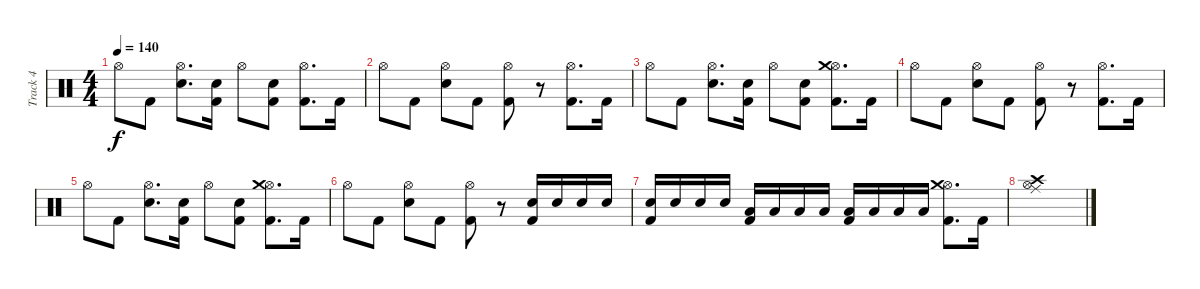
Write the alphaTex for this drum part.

\track ("Track 4" "Track 4") {instrument percussion}
\staff {score}
\articulation defaults
\ts (4 4)
\tempo 140
\clef neutral
\ks c "Hi-Hat (open)".8{dy f} "Kick (hit) 2".8
("Hi-Hat (open)" "Snare (hit) 2").8{d} ("Snare (hit) 2" "Kick (hit) 2").16 "Hi-Hat (open)".8 ("Snare (hit) 2" "Kick (hit) 2").8 ("Hi-Hat (open)" "Kick (hit) 2").8{d} "Kick (hit) 2".16 |
"Hi-Hat (open)".8 "Kick (hit) 2".8 ("Hi-Hat (open)" "Snare (hit) 2").8 "Kick (hit) 2".8 ("Hi-Hat (open)" "Kick (hit) 2").8 r.8 ("Hi-Hat (open)" "Kick (hit) 2").8{d} "Kick (hit) 2".16 |
"Hi-Hat (open)".8 "Kick (hit) 2".8 ("Hi-Hat (open)" "Snare (hit) 2").8{d} ("Snare (hit) 2" "Kick (hit) 2").16 "Hi-Hat (open)".8 ("Snare (hit) 2" "Kick (hit) 2").8 ("Hi-Hat (open)" "Crash medium (hit)" "Kick (hit) 2").8{d} "Kick (hit) 2".16 |
"Hi-Hat (open)".8 "Kick (hit) 2".8 ("Hi-Hat (open)" "Snare (hit) 2").8 "Kick (hit) 2".8 ("Hi-Hat (open)" "Kick (hit) 2").8 r.8 ("Hi-Hat (open)" "Kick (hit) 2").8{d} "Kick (hit) 2".16 |
"Hi-Hat (open)".8 "Kick (hit) 2".8 ("Hi-Hat (open)" "Snare (hit) 2").8{d} ("Snare (hit) 2" "Kick (hit) 2").16 "Hi-Hat (open)".8 ("Snare (hit) 2" "Kick (hit) 2").8 ("Hi-Hat (open)" "Crash medium (hit)" "Kick (hit) 2").8{d} "Kick (hit) 2".16 |
"Hi-Hat (open)".8 "Kick (hit) 2".8 ("Hi-Hat (open)" "Snare (hit) 2").8 "Kick (hit) 2".8 ("Hi-Hat (open)" "Kick (hit) 2").8 r.8 ("Snare (hit) 2" "Kick (hit) 2").16 "Snare (hit) 2".16 "Snare (hit) 2".16 "Snare (hit) 2".16 |
("Snare (hit) 2" "Kick (hit) 2").16 "Snare (hit) 2".16 "Snare (hit) 2".16 "Snare (hit) 2".16 ("Low Floor Tom (hit)" "Kick (hit) 2").16 "Low Floor Tom (hit)".16 "Low Floor Tom (hit)".16 "Low Floor Tom (hit)".16 ("Low Floor Tom (hit)" "Kick (hit) 2").16 "Low Floor Tom (hit)".16 "Low Floor Tom (hit)".16 "Low Floor Tom (hit)".16 ("Hi-Hat (open)" "Crash medium (hit)" "Kick (hit) 2").8{d} "Kick (hit) 2".16 |
("Hi-Hat (open)" "Crash high (hit)" "Ride (middle)").1
